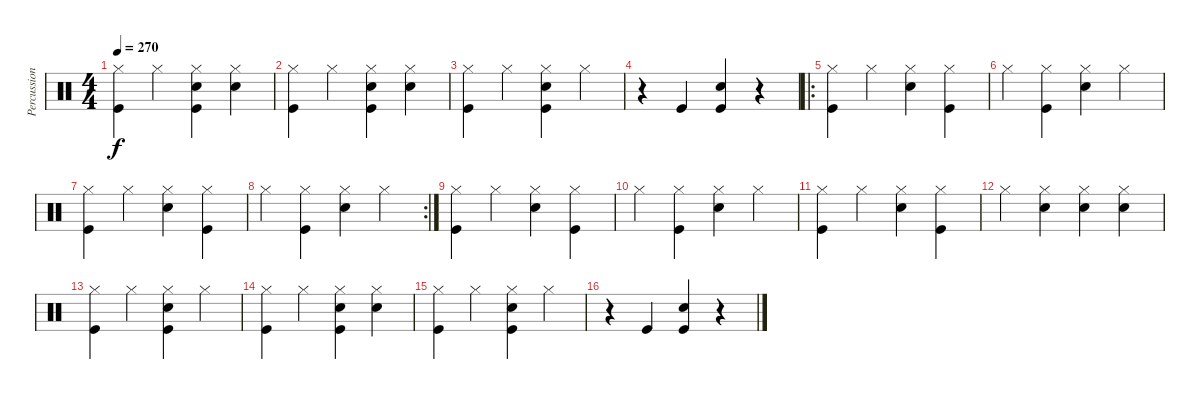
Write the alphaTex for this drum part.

\track ("Percussions" "Percussion") {instrument percussion}
\staff {score}
\articulation defaults
\ts (4 4)
\tempo 270
\clef neutral
\ks c
("Hi-Hat (closed)" "Kick (hit)").4{dy f} "Hi-Hat (closed)".4 ("Hi-Hat (closed)" "Snare (hit) 2" "Kick (hit)").4 ("Hi-Hat (closed)" "Snare (hit) 2").4 |
("Hi-Hat (closed)" "Kick (hit)").4 "Hi-Hat (closed)".4 ("Hi-Hat (closed)" "Snare (hit) 2" "Kick (hit)").4 ("Hi-Hat (closed)" "Snare (hit) 2").4 |
("Hi-Hat (closed)" "Kick (hit)").4 "Hi-Hat (closed)".4 ("Hi-Hat (closed)" "Snare (hit) 2" "Kick (hit)").4 "Hi-Hat (closed)".4 |
r.4 "Kick (hit)".4 ("Kick (hit)" "Snare (hit) 2").4 r.4 |
\ro
("Hi-Hat (closed)" "Kick (hit)").4 "Hi-Hat (closed)".4 ("Hi-Hat (closed)" "Snare (hit) 2").4 ("Hi-Hat (closed)" "Kick (hit)").4 |
"Hi-Hat (closed)".4 ("Hi-Hat (closed)" "Kick (hit)").4 ("Hi-Hat (closed)" "Snare (hit) 2").4 "Hi-Hat (closed)".4 |
("Hi-Hat (closed)" "Kick (hit)").4 "Hi-Hat (closed)".4 ("Hi-Hat (closed)" "Snare (hit) 2").4 ("Hi-Hat (closed)" "Kick (hit)").4 |
\rc 2 "Hi-Hat (closed)".4
("Hi-Hat (closed)" "Kick (hit)").4 ("Hi-Hat (closed)" "Snare (hit) 2").4 "Hi-Hat (closed)".4 |
("Hi-Hat (closed)" "Kick (hit)").4 "Hi-Hat (closed)".4 ("Hi-Hat (closed)" "Snare (hit) 2").4 ("Hi-Hat (closed)" "Kick (hit)").4 |
"Hi-Hat (closed)".4 ("Hi-Hat (closed)" "Kick (hit)").4 ("Hi-Hat (closed)" "Snare (hit) 2").4 "Hi-Hat (closed)".4 |
("Hi-Hat (closed)" "Kick (hit)").4 "Hi-Hat (closed)".4 ("Hi-Hat (closed)" "Snare (hit) 2").4 ("Hi-Hat (closed)" "Kick (hit)").4 |
"Hi-Hat (closed)".4 ("Hi-Hat (closed)" "Snare (hit) 2").4 ("Hi-Hat (closed)" "Snare (hit) 2").4 ("Hi-Hat (closed)" "Snare (hit) 2").4 |
("Hi-Hat (closed)" "Kick (hit)").4 "Hi-Hat (closed)".4 ("Hi-Hat (closed)" "Snare (hit) 2" "Kick (hit)").4 "Hi-Hat (closed)".4 |
("Hi-Hat (closed)" "Kick (hit)").4 "Hi-Hat (closed)".4 ("Hi-Hat (closed)" "Snare (hit) 2" "Kick (hit)").4 ("Hi-Hat (closed)" "Snare (hit) 2").4 |
("Hi-Hat (closed)" "Kick (hit)").4 "Hi-Hat (closed)".4 ("Hi-Hat (closed)" "Snare (hit) 2" "Kick (hit)").4 "Hi-Hat (closed)".4 |
r.4 "Kick (hit)".4 ("Kick (hit)" "Snare (hit) 2").4 r.4
